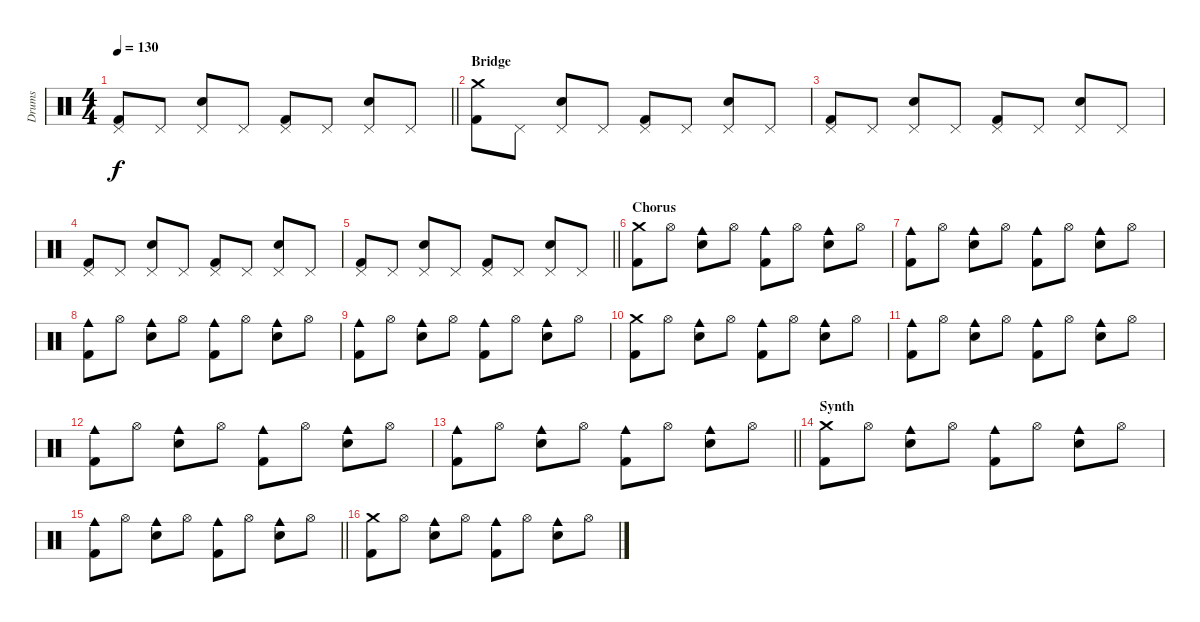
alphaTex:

\track ("Drums" "Drums") {instrument percussion}
\staff {score}
\articulation defaults
\ts (4 4)
\tempo 130
\clef neutral
\barLineRight lightlight
\ks c
("Pedal Hi-Hat (hit)" "Kick (hit) 2").8{dy f} "Pedal Hi-Hat (hit)".8 ("Pedal Hi-Hat (hit)" "Snare (hit) 2").8 "Pedal Hi-Hat (hit)".8 ("Pedal Hi-Hat (hit)" "Kick (hit) 2").8 "Pedal Hi-Hat (hit)".8 ("Pedal Hi-Hat (hit)" "Snare (hit) 2").8 "Pedal Hi-Hat (hit)".8 |
\section ("" "Bridge")
("Crash medium (hit)" "Kick (hit) 2").8 "Pedal Hi-Hat (hit)".8 ("Pedal Hi-Hat (hit)" "Snare (hit) 2").8 "Pedal Hi-Hat (hit)".8 ("Pedal Hi-Hat (hit)" "Kick (hit) 2").8 "Pedal Hi-Hat (hit)".8 ("Pedal Hi-Hat (hit)" "Snare (hit) 2").8 "Pedal Hi-Hat (hit)".8 |
("Pedal Hi-Hat (hit)" "Kick (hit) 2").8 "Pedal Hi-Hat (hit)".8 ("Pedal Hi-Hat (hit)" "Snare (hit) 2").8 "Pedal Hi-Hat (hit)".8 ("Pedal Hi-Hat (hit)" "Kick (hit) 2").8 "Pedal Hi-Hat (hit)".8 ("Pedal Hi-Hat (hit)" "Snare (hit) 2").8 "Pedal Hi-Hat (hit)".8 |
("Pedal Hi-Hat (hit)" "Kick (hit) 2").8 "Pedal Hi-Hat (hit)".8 ("Pedal Hi-Hat (hit)" "Snare (hit) 2").8 "Pedal Hi-Hat (hit)".8 ("Pedal Hi-Hat (hit)" "Kick (hit) 2").8 "Pedal Hi-Hat (hit)".8 ("Pedal Hi-Hat (hit)" "Snare (hit) 2").8 "Pedal Hi-Hat (hit)".8 |
\barLineRight lightlight
("Pedal Hi-Hat (hit)" "Kick (hit) 2").8 "Pedal Hi-Hat (hit)".8 ("Pedal Hi-Hat (hit)" "Snare (hit) 2").8 "Pedal Hi-Hat (hit)".8 ("Pedal Hi-Hat (hit)" "Kick (hit) 2").8 "Pedal Hi-Hat (hit)".8 ("Pedal Hi-Hat (hit)" "Snare (hit) 2").8 "Pedal Hi-Hat (hit)".8 |
\section ("" "Chorus")
("Crash medium (hit)" "Kick (hit) 2").8 "Hi-Hat (open)".8 ("Cowbell medium (hit)" "Snare (hit) 2").8 "Hi-Hat (open)".8 ("Cowbell medium (hit)" "Kick (hit) 2").8 "Hi-Hat (open)".8 ("Cowbell medium (hit)" "Snare (hit) 2").8 "Hi-Hat (open)".8 |
("Cowbell medium (hit)" "Kick (hit) 2").8 "Hi-Hat (open)".8 ("Cowbell medium (hit)" "Snare (hit) 2").8 "Hi-Hat (open)".8 ("Cowbell medium (hit)" "Kick (hit) 2").8 "Hi-Hat (open)".8 ("Cowbell medium (hit)" "Snare (hit) 2").8 "Hi-Hat (open)".8 |
("Cowbell medium (hit)" "Kick (hit) 2").8 "Hi-Hat (open)".8 ("Cowbell medium (hit)" "Snare (hit) 2").8 "Hi-Hat (open)".8 ("Cowbell medium (hit)" "Kick (hit) 2").8 "Hi-Hat (open)".8 ("Cowbell medium (hit)" "Snare (hit) 2").8 "Hi-Hat (open)".8 |
("Cowbell medium (hit)" "Kick (hit) 2").8 "Hi-Hat (open)".8 ("Cowbell medium (hit)" "Snare (hit) 2").8 "Hi-Hat (open)".8 ("Cowbell medium (hit)" "Kick (hit) 2").8 "Hi-Hat (open)".8 ("Cowbell medium (hit)" "Snare (hit) 2").8 "Hi-Hat (open)".8 |
("Crash medium (hit)" "Kick (hit) 2").8 "Hi-Hat (open)".8 ("Cowbell medium (hit)" "Snare (hit) 2").8 "Hi-Hat (open)".8 ("Cowbell medium (hit)" "Kick (hit) 2").8 "Hi-Hat (open)".8 ("Cowbell medium (hit)" "Snare (hit) 2").8 "Hi-Hat (open)".8 |
("Cowbell medium (hit)" "Kick (hit) 2").8 "Hi-Hat (open)".8 ("Cowbell medium (hit)" "Snare (hit) 2").8 "Hi-Hat (open)".8 ("Cowbell medium (hit)" "Kick (hit) 2").8 "Hi-Hat (open)".8 ("Cowbell medium (hit)" "Snare (hit) 2").8 "Hi-Hat (open)".8 |
("Cowbell medium (hit)" "Kick (hit) 2").8 "Hi-Hat (open)".8 ("Cowbell medium (hit)" "Snare (hit) 2").8 "Hi-Hat (open)".8 ("Cowbell medium (hit)" "Kick (hit) 2").8 "Hi-Hat (open)".8 ("Cowbell medium (hit)" "Snare (hit) 2").8 "Hi-Hat (open)".8 |
\barLineRight lightlight
("Cowbell medium (hit)" "Kick (hit) 2").8 "Hi-Hat (open)".8 ("Cowbell medium (hit)" "Snare (hit) 2").8 "Hi-Hat (open)".8 ("Cowbell medium (hit)" "Kick (hit) 2").8 "Hi-Hat (open)".8 ("Cowbell medium (hit)" "Snare (hit) 2").8 "Hi-Hat (open)".8 |
\section ("" "Synth")
("Crash medium (hit)" "Kick (hit) 2").8 "Hi-Hat (open)".8 ("Cowbell medium (hit)" "Snare (hit) 2").8 "Hi-Hat (open)".8 ("Cowbell medium (hit)" "Kick (hit) 2").8 "Hi-Hat (open)".8 ("Cowbell medium (hit)" "Snare (hit) 2").8 "Hi-Hat (open)".8 |
\barLineRight lightlight
("Cowbell medium (hit)" "Kick (hit) 2").8 "Hi-Hat (open)".8 ("Cowbell medium (hit)" "Snare (hit) 2").8 "Hi-Hat (open)".8 ("Cowbell medium (hit)" "Kick (hit) 2").8 "Hi-Hat (open)".8 ("Cowbell medium (hit)" "Snare (hit) 2").8 "Hi-Hat (open)".8 |
("Crash medium (hit)" "Kick (hit) 2").8 "Hi-Hat (open)".8 ("Cowbell medium (hit)" "Snare (hit) 2").8 "Hi-Hat (open)".8 ("Cowbell medium (hit)" "Kick (hit) 2").8 "Hi-Hat (open)".8 ("Cowbell medium (hit)" "Snare (hit) 2").8 "Hi-Hat (open)".8
